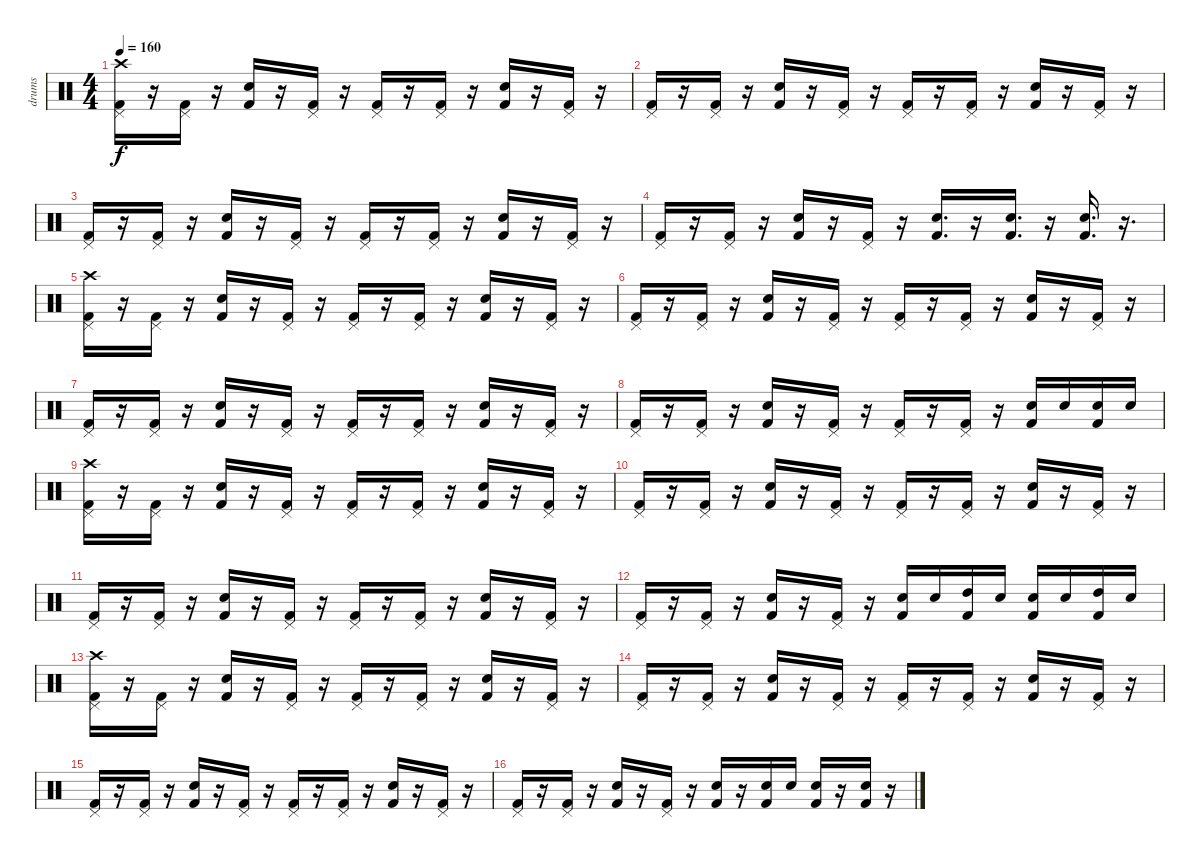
\track ("drums" "drums") {instrument percussion}
\staff {score}
\articulation defaults
\ts (4 4)
\tempo 160
\clef neutral
\ks c
("Crash high (hit)" "Pedal Hi-Hat (hit)" "Kick (hit) 2").16{dy f} r.16 ("Pedal Hi-Hat (hit)" "Kick (hit) 2").16 r.16 ("Snare (hit) 2" "Kick (hit) 2").16 r.16 ("Pedal Hi-Hat (hit)" "Kick (hit) 2").16 r.16 ("Pedal Hi-Hat (hit)" "Kick (hit) 2").16 r.16 ("Pedal Hi-Hat (hit)" "Kick (hit) 2").16 r.16 ("Snare (hit) 2" "Kick (hit) 2").16 r.16 ("Pedal Hi-Hat (hit)" "Kick (hit) 2").16 r.16 |
("Pedal Hi-Hat (hit)" "Kick (hit) 2").16 r.16 ("Pedal Hi-Hat (hit)" "Kick (hit) 2").16 r.16 ("Snare (hit) 2" "Kick (hit) 2").16 r.16 ("Pedal Hi-Hat (hit)" "Kick (hit) 2").16 r.16 ("Pedal Hi-Hat (hit)" "Kick (hit) 2").16 r.16 ("Pedal Hi-Hat (hit)" "Kick (hit) 2").16 r.16 ("Snare (hit) 2" "Kick (hit) 2").16 r.16 ("Pedal Hi-Hat (hit)" "Kick (hit) 2").16 r.16 |
("Pedal Hi-Hat (hit)" "Kick (hit) 2").16 r.16 ("Pedal Hi-Hat (hit)" "Kick (hit) 2").16 r.16 ("Snare (hit) 2" "Kick (hit) 2").16 r.16 ("Pedal Hi-Hat (hit)" "Kick (hit) 2").16 r.16 ("Pedal Hi-Hat (hit)" "Kick (hit) 2").16 r.16 ("Pedal Hi-Hat (hit)" "Kick (hit) 2").16 r.16 ("Snare (hit) 2" "Kick (hit) 2").16 r.16 ("Pedal Hi-Hat (hit)" "Kick (hit) 2").16 r.16 |
("Pedal Hi-Hat (hit)" "Kick (hit) 2").16 r.16 ("Pedal Hi-Hat (hit)" "Kick (hit) 2").16 r.16 ("Snare (hit) 2" "Kick (hit) 2").16 r.16 ("Pedal Hi-Hat (hit)" "Kick (hit) 2").16 r.16 ("Snare (hit) 2" "Kick (hit) 2").16{d} r.16 ("Snare (hit) 2" "Kick (hit) 2").16{d} r.16 ("Snare (hit) 2" "Kick (hit) 2").16{d} r.16{d} |
("Crash high (hit)" "Pedal Hi-Hat (hit)" "Kick (hit) 2").16 r.16 ("Pedal Hi-Hat (hit)" "Kick (hit) 2").16 r.16 ("Snare (hit) 2" "Kick (hit) 2").16 r.16 ("Pedal Hi-Hat (hit)" "Kick (hit) 2").16 r.16 ("Pedal Hi-Hat (hit)" "Kick (hit) 2").16 r.16 ("Pedal Hi-Hat (hit)" "Kick (hit) 2").16 r.16 ("Snare (hit) 2" "Kick (hit) 2").16 r.16 ("Pedal Hi-Hat (hit)" "Kick (hit) 2").16 r.16 |
("Pedal Hi-Hat (hit)" "Kick (hit) 2").16 r.16 ("Pedal Hi-Hat (hit)" "Kick (hit) 2").16 r.16 ("Snare (hit) 2" "Kick (hit) 2").16 r.16 ("Pedal Hi-Hat (hit)" "Kick (hit) 2").16 r.16 ("Pedal Hi-Hat (hit)" "Kick (hit) 2").16 r.16 ("Pedal Hi-Hat (hit)" "Kick (hit) 2").16 r.16 ("Snare (hit) 2" "Kick (hit) 2").16 r.16 ("Pedal Hi-Hat (hit)" "Kick (hit) 2").16 r.16 |
("Pedal Hi-Hat (hit)" "Kick (hit) 2").16 r.16 ("Pedal Hi-Hat (hit)" "Kick (hit) 2").16 r.16 ("Snare (hit) 2" "Kick (hit) 2").16 r.16 ("Pedal Hi-Hat (hit)" "Kick (hit) 2").16 r.16 ("Pedal Hi-Hat (hit)" "Kick (hit) 2").16 r.16 ("Pedal Hi-Hat (hit)" "Kick (hit) 2").16 r.16 ("Snare (hit) 2" "Kick (hit) 2").16 r.16 ("Pedal Hi-Hat (hit)" "Kick (hit) 2").16 r.16 |
("Pedal Hi-Hat (hit)" "Kick (hit) 2").16 r.16 ("Pedal Hi-Hat (hit)" "Kick (hit) 2").16 r.16 ("Snare (hit) 2" "Kick (hit) 2").16 r.16 ("Pedal Hi-Hat (hit)" "Kick (hit) 2").16 r.16 ("Pedal Hi-Hat (hit)" "Kick (hit) 2").16 r.16 ("Pedal Hi-Hat (hit)" "Kick (hit) 2").16 r.16 ("Electric Snare (hit)" "Kick (hit) 2").16 "Electric Snare (hit)".16 ("Electric Snare (hit)" "Kick (hit) 2").16 "Electric Snare (hit)".16 |
("Crash high (hit)" "Pedal Hi-Hat (hit)" "Kick (hit) 2").16 r.16 ("Pedal Hi-Hat (hit)" "Kick (hit) 2").16 r.16 ("Snare (hit) 2" "Kick (hit) 2").16 r.16 ("Pedal Hi-Hat (hit)" "Kick (hit) 2").16 r.16 ("Pedal Hi-Hat (hit)" "Kick (hit) 2").16 r.16 ("Pedal Hi-Hat (hit)" "Kick (hit) 2").16 r.16 ("Snare (hit) 2" "Kick (hit) 2").16 r.16 ("Pedal Hi-Hat (hit)" "Kick (hit) 2").16 r.16 |
("Pedal Hi-Hat (hit)" "Kick (hit) 2").16 r.16 ("Pedal Hi-Hat (hit)" "Kick (hit) 2").16 r.16 ("Snare (hit) 2" "Kick (hit) 2").16 r.16 ("Pedal Hi-Hat (hit)" "Kick (hit) 2").16 r.16 ("Pedal Hi-Hat (hit)" "Kick (hit) 2").16 r.16 ("Pedal Hi-Hat (hit)" "Kick (hit) 2").16 r.16 ("Snare (hit) 2" "Kick (hit) 2").16 r.16 ("Pedal Hi-Hat (hit)" "Kick (hit) 2").16 r.16 |
("Pedal Hi-Hat (hit)" "Kick (hit) 2").16 r.16 ("Pedal Hi-Hat (hit)" "Kick (hit) 2").16 r.16 ("Snare (hit) 2" "Kick (hit) 2").16 r.16 ("Pedal Hi-Hat (hit)" "Kick (hit) 2").16 r.16 ("Pedal Hi-Hat (hit)" "Kick (hit) 2").16 r.16 ("Pedal Hi-Hat (hit)" "Kick (hit) 2").16 r.16 ("Snare (hit) 2" "Kick (hit) 2").16 r.16 ("Pedal Hi-Hat (hit)" "Kick (hit) 2").16 r.16 |
("Pedal Hi-Hat (hit)" "Kick (hit) 2").16 r.16 ("Pedal Hi-Hat (hit)" "Kick (hit) 2").16 r.16 ("Snare (hit) 2" "Kick (hit) 2").16 r.16 ("Pedal Hi-Hat (hit)" "Kick (hit) 2").16 r.16 ("Electric Snare (hit)" "Kick (hit) 2").16 "Electric Snare (hit)".16 ("High Tom (hit)" "Kick (hit) 2").16 "Snare (hit) 2".16 ("Electric Snare (hit)" "Kick (hit) 2").16 "Electric Snare (hit)".16 ("High Tom (hit)" "Kick (hit) 2").16 "Snare (hit) 2".16 |
("Crash high (hit)" "Pedal Hi-Hat (hit)" "Kick (hit) 2").16 r.16 ("Pedal Hi-Hat (hit)" "Kick (hit) 2").16 r.16 ("Snare (hit) 2" "Kick (hit) 2").16 r.16 ("Pedal Hi-Hat (hit)" "Kick (hit) 2").16 r.16 ("Pedal Hi-Hat (hit)" "Kick (hit) 2").16 r.16 ("Pedal Hi-Hat (hit)" "Kick (hit) 2").16 r.16 ("Snare (hit) 2" "Kick (hit) 2").16 r.16 ("Pedal Hi-Hat (hit)" "Kick (hit) 2").16 r.16 |
("Pedal Hi-Hat (hit)" "Kick (hit) 2").16 r.16 ("Pedal Hi-Hat (hit)" "Kick (hit) 2").16 r.16 ("Snare (hit) 2" "Kick (hit) 2").16 r.16 ("Pedal Hi-Hat (hit)" "Kick (hit) 2").16 r.16 ("Pedal Hi-Hat (hit)" "Kick (hit) 2").16 r.16 ("Pedal Hi-Hat (hit)" "Kick (hit) 2").16 r.16 ("Snare (hit) 2" "Kick (hit) 2").16 r.16 ("Pedal Hi-Hat (hit)" "Kick (hit) 2").16 r.16 |
("Pedal Hi-Hat (hit)" "Kick (hit) 2").16 r.16 ("Pedal Hi-Hat (hit)" "Kick (hit) 2").16 r.16 ("Snare (hit) 2" "Kick (hit) 2").16 r.16 ("Pedal Hi-Hat (hit)" "Kick (hit) 2").16 r.16 ("Pedal Hi-Hat (hit)" "Kick (hit) 2").16 r.16 ("Pedal Hi-Hat (hit)" "Kick (hit) 2").16 r.16 ("Snare (hit) 2" "Kick (hit) 2").16 r.16 ("Pedal Hi-Hat (hit)" "Kick (hit) 2").16 r.16 |
("Pedal Hi-Hat (hit)" "Kick (hit) 2").16 r.16 ("Pedal Hi-Hat (hit)" "Kick (hit) 2").16 r.16 ("Snare (hit) 2" "Kick (hit) 2").16 r.16 ("Pedal Hi-Hat (hit)" "Kick (hit) 2").16 r.16 ("Electric Snare (hit)" "Kick (hit) 2").16 r.16 ("Electric Snare (hit)" "Kick (hit) 2").16 "Electric Snare (hit)".16 ("Electric Snare (hit)" "Kick (hit) 2").16 r.16 ("Electric Snare (hit)" "Kick (hit) 2").16 r.16
